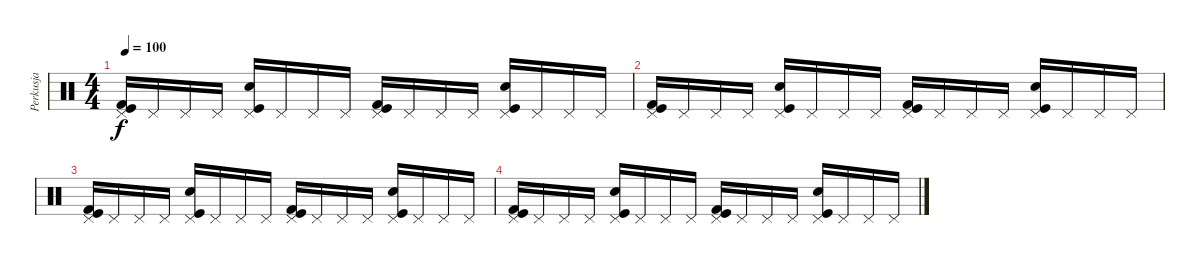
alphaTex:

\track ("Perkusja" "Perkusja") {instrument percussion}
\staff {score}
\articulation defaults
\ts (4 4)
\tempo 100
\clef neutral
\ks c
("Pedal Hi-Hat (hit)" "Kick (hit)" "Kick (hit) 2").16{dy f} "Pedal Hi-Hat (hit)".16 "Pedal Hi-Hat (hit)".16 "Pedal Hi-Hat (hit)".16 ("Pedal Hi-Hat (hit)" "Hand Clap (hit)" "Kick (hit)").16 "Pedal Hi-Hat (hit)".16 "Pedal Hi-Hat (hit)".16 "Pedal Hi-Hat (hit)".16 ("Pedal Hi-Hat (hit)" "Kick (hit)" "Kick (hit) 2").16 "Pedal Hi-Hat (hit)".16 "Pedal Hi-Hat (hit)".16 "Pedal Hi-Hat (hit)".16 ("Pedal Hi-Hat (hit)" "Hand Clap (hit)" "Kick (hit)").16 "Pedal Hi-Hat (hit)".16 "Pedal Hi-Hat (hit)".16 "Pedal Hi-Hat (hit)".16 |
("Pedal Hi-Hat (hit)" "Kick (hit)" "Kick (hit) 2").16 "Pedal Hi-Hat (hit)".16 "Pedal Hi-Hat (hit)".16 "Pedal Hi-Hat (hit)".16 ("Pedal Hi-Hat (hit)" "Hand Clap (hit)" "Kick (hit)").16 "Pedal Hi-Hat (hit)".16 "Pedal Hi-Hat (hit)".16 "Pedal Hi-Hat (hit)".16 ("Pedal Hi-Hat (hit)" "Kick (hit)" "Kick (hit) 2").16 "Pedal Hi-Hat (hit)".16 "Pedal Hi-Hat (hit)".16 "Pedal Hi-Hat (hit)".16 ("Pedal Hi-Hat (hit)" "Hand Clap (hit)" "Kick (hit)").16 "Pedal Hi-Hat (hit)".16 "Pedal Hi-Hat (hit)".16 "Pedal Hi-Hat (hit)".16 |
("Pedal Hi-Hat (hit)" "Kick (hit)" "Kick (hit) 2").16 "Pedal Hi-Hat (hit)".16 "Pedal Hi-Hat (hit)".16 "Pedal Hi-Hat (hit)".16 ("Pedal Hi-Hat (hit)" "Hand Clap (hit)" "Kick (hit)").16 "Pedal Hi-Hat (hit)".16 "Pedal Hi-Hat (hit)".16 "Pedal Hi-Hat (hit)".16 ("Pedal Hi-Hat (hit)" "Kick (hit)" "Kick (hit) 2").16 "Pedal Hi-Hat (hit)".16 "Pedal Hi-Hat (hit)".16 "Pedal Hi-Hat (hit)".16 ("Pedal Hi-Hat (hit)" "Hand Clap (hit)" "Kick (hit)").16 "Pedal Hi-Hat (hit)".16 "Pedal Hi-Hat (hit)".16 "Pedal Hi-Hat (hit)".16 |
("Pedal Hi-Hat (hit)" "Kick (hit)" "Kick (hit) 2").16 "Pedal Hi-Hat (hit)".16 "Pedal Hi-Hat (hit)".16 "Pedal Hi-Hat (hit)".16 ("Pedal Hi-Hat (hit)" "Hand Clap (hit)" "Kick (hit)").16 "Pedal Hi-Hat (hit)".16 "Pedal Hi-Hat (hit)".16 "Pedal Hi-Hat (hit)".16 ("Pedal Hi-Hat (hit)" "Kick (hit)" "Kick (hit) 2").16 "Pedal Hi-Hat (hit)".16 "Pedal Hi-Hat (hit)".16 "Pedal Hi-Hat (hit)".16 ("Pedal Hi-Hat (hit)" "Hand Clap (hit)" "Kick (hit)").16 "Pedal Hi-Hat (hit)".16 "Pedal Hi-Hat (hit)".16 "Pedal Hi-Hat (hit)".16
